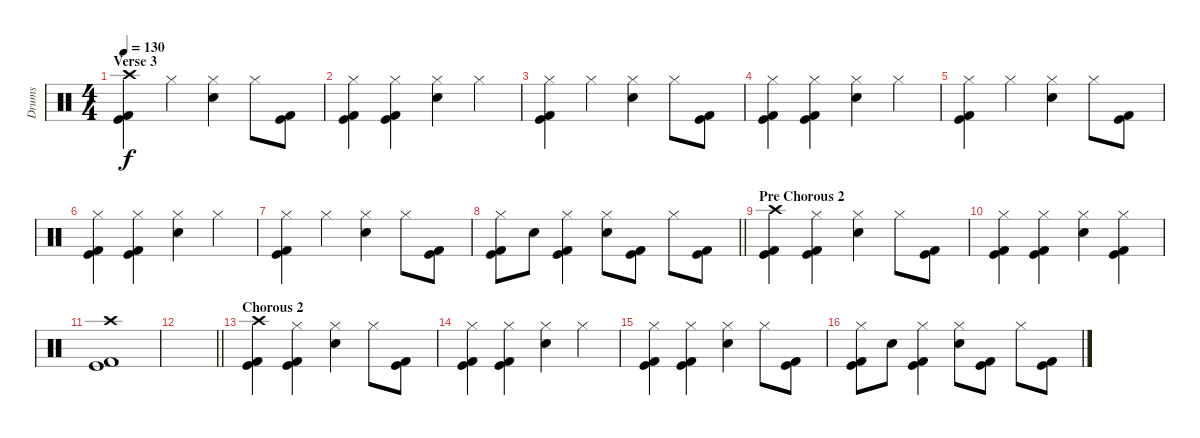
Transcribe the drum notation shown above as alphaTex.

\track ("Drums" "Drums") {instrument percussion}
\staff {score}
\articulation defaults
\ts (4 4)
\section ("" "Verse 3")
\tempo 130
\clef neutral
\ks c
("Crash high (hit)" "Kick (hit)" "Kick (hit) 2").4{dy f} "Hi-Hat (closed)".4 ("Hi-Hat (closed)" "Electric Snare (hit)").4 "Hi-Hat (closed)".8 ("Kick (hit)" "Kick (hit) 2").8 |
("Hi-Hat (closed)" "Kick (hit)" "Kick (hit) 2").4 ("Hi-Hat (closed)" "Kick (hit)" "Kick (hit) 2").4 ("Hi-Hat (closed)" "Electric Snare (hit)").4 "Hi-Hat (closed)".4 |
("Hi-Hat (closed)" "Kick (hit)" "Kick (hit) 2").4 "Hi-Hat (closed)".4 ("Hi-Hat (closed)" "Electric Snare (hit)").4 "Hi-Hat (closed)".8 ("Kick (hit)" "Kick (hit) 2").8 |
("Hi-Hat (closed)" "Kick (hit)" "Kick (hit) 2").4 ("Hi-Hat (closed)" "Kick (hit)" "Kick (hit) 2").4 ("Hi-Hat (closed)" "Electric Snare (hit)").4 "Hi-Hat (closed)".4 |
("Hi-Hat (closed)" "Kick (hit)" "Kick (hit) 2").4 "Hi-Hat (closed)".4 ("Hi-Hat (closed)" "Electric Snare (hit)").4 "Hi-Hat (closed)".8 ("Kick (hit)" "Kick (hit) 2").8 |
("Hi-Hat (closed)" "Kick (hit)" "Kick (hit) 2").4 ("Hi-Hat (closed)" "Kick (hit)" "Kick (hit) 2").4 ("Hi-Hat (closed)" "Electric Snare (hit)").4 "Hi-Hat (closed)".4 |
("Hi-Hat (closed)" "Kick (hit)" "Kick (hit) 2").4 "Hi-Hat (closed)".4 ("Hi-Hat (closed)" "Electric Snare (hit)").4 "Hi-Hat (closed)".8 ("Kick (hit)" "Kick (hit) 2").8 |
\barLineRight lightlight
("Hi-Hat (closed)" "Kick (hit)" "Kick (hit) 2").8 "Electric Snare (hit)".8 ("Hi-Hat (closed)" "Kick (hit)" "Kick (hit) 2").4 ("Hi-Hat (closed)" "Electric Snare (hit)").8 ("Kick (hit)" "Kick (hit) 2").8 "Hi-Hat (closed)".8 ("Kick (hit)" "Kick (hit) 2").8 |
\section ("" "Pre Chorous 2")
("Crash high (hit)" "Kick (hit)" "Kick (hit) 2").4 ("Hi-Hat (closed)" "Kick (hit)" "Kick (hit) 2").4 ("Hi-Hat (closed)" "Electric Snare (hit)").4 "Hi-Hat (closed)".8 ("Kick (hit)" "Kick (hit) 2").8 |
("Hi-Hat (closed)" "Kick (hit)" "Kick (hit) 2").4 ("Hi-Hat (closed)" "Kick (hit)" "Kick (hit) 2").4 ("Hi-Hat (closed)" "Electric Snare (hit)").4 ("Hi-Hat (closed)" "Kick (hit)" "Kick (hit) 2").4 |
("Crash high (hit)" "Kick (hit)" "Kick (hit) 2").1 |
\barLineRight lightlight
|
\section ("" "Chorous 2")
("Crash high (hit)" "Kick (hit)" "Kick (hit) 2").4 ("Hi-Hat (closed)" "Kick (hit)" "Kick (hit) 2").4 ("Hi-Hat (closed)" "Electric Snare (hit)").4 "Hi-Hat (closed)".8 ("Kick (hit)" "Kick (hit) 2").8 |
("Hi-Hat (closed)" "Kick (hit)" "Kick (hit) 2").4 ("Hi-Hat (closed)" "Kick (hit)" "Kick (hit) 2").4 ("Hi-Hat (closed)" "Electric Snare (hit)").4 "Hi-Hat (closed)".4 |
("Hi-Hat (closed)" "Kick (hit)" "Kick (hit) 2").4 ("Hi-Hat (closed)" "Kick (hit)" "Kick (hit) 2").4 ("Hi-Hat (closed)" "Electric Snare (hit)").4 "Hi-Hat (closed)".8 ("Kick (hit)" "Kick (hit) 2").8 |
("Hi-Hat (closed)" "Kick (hit)" "Kick (hit) 2").8 "Electric Snare (hit)".8 ("Hi-Hat (closed)" "Kick (hit)" "Kick (hit) 2").4 ("Hi-Hat (closed)" "Electric Snare (hit)").8 ("Kick (hit)" "Kick (hit) 2").8 "Hi-Hat (closed)".8 ("Kick (hit)" "Kick (hit) 2").8
